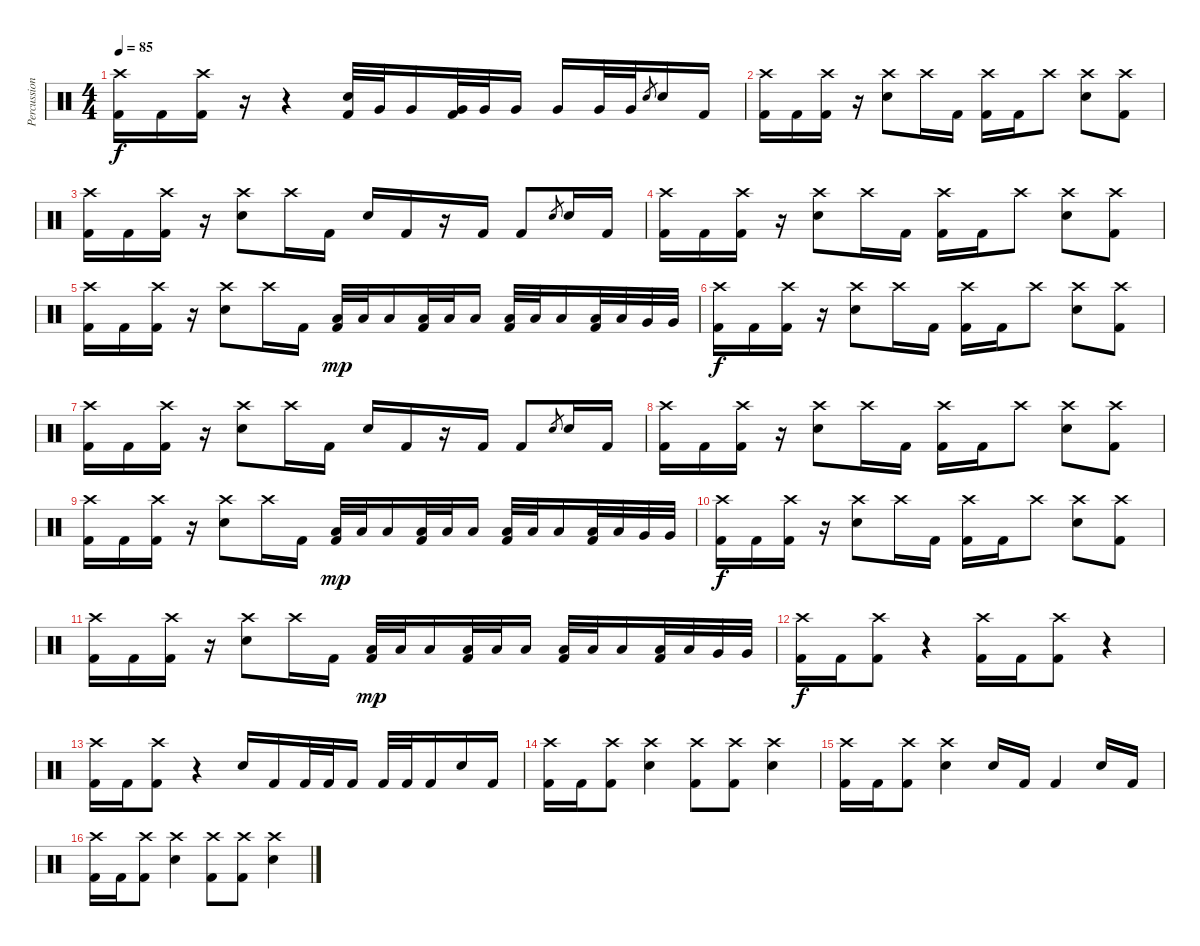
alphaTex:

\track ("Percussion" "Percussion") {instrument percussion}
\staff {score}
\articulation defaults
\ts (4 4)
\tempo 85
\clef neutral
\ks c
("Crash high (hit)" "Kick (hit) 2").16{dy f} "Kick (hit) 2".16 ("Crash high (hit)" "Kick (hit) 2").16 r.16 r.4 ("Electric Snare (hit)" "Kick (hit) 2").32 "Very Low Tom (hit)".32 "Very Low Tom (hit)".16 ("Very Low Tom (hit)" "Kick (hit) 2").32 "Very Low Tom (hit)".32 "Very Low Tom (hit)".16 "Very Low Tom (hit)".16 "Very Low Tom (hit)".32 "Very Low Tom (hit)".32 "Electric Snare (hit)".8{gr} "Electric Snare (hit)".16 "Kick (hit) 2".16 |
("Crash high (hit)" "Kick (hit) 2").16 "Kick (hit) 2".16 ("Crash high (hit)" "Kick (hit) 2").16 r.16 ("Crash high (hit)" "Electric Snare (hit)").8 "Crash high (hit)".16 "Kick (hit) 2".16 ("Crash high (hit)" "Kick (hit) 2").16 "Kick (hit) 2".16 "Crash high (hit)".8 ("Crash high (hit)" "Electric Snare (hit)").8 ("Crash high (hit)" "Kick (hit) 2").8 |
("Crash high (hit)" "Kick (hit) 2").16 "Kick (hit) 2".16 ("Crash high (hit)" "Kick (hit) 2").16 r.16 ("Crash high (hit)" "Electric Snare (hit)").8 "Crash high (hit)".16 "Kick (hit) 2".16 "Electric Snare (hit)".16 "Kick (hit) 2".16 r.16 "Kick (hit) 2".16 "Kick (hit) 2".8 "Electric Snare (hit)".8{gr} "Electric Snare (hit)".16 "Kick (hit) 2".16 |
("Crash high (hit)" "Kick (hit) 2").16 "Kick (hit) 2".16 ("Crash high (hit)" "Kick (hit) 2").16 r.16 ("Crash high (hit)" "Electric Snare (hit)").8 "Crash high (hit)".16 "Kick (hit) 2".16 ("Crash high (hit)" "Kick (hit) 2").16 "Kick (hit) 2".16 "Crash high (hit)".8 ("Crash high (hit)" "Electric Snare (hit)").8 ("Crash high (hit)" "Kick (hit) 2").8 |
("Crash high (hit)" "Kick (hit) 2").16 "Kick (hit) 2".16 ("Crash high (hit)" "Kick (hit) 2").16 r.16 ("Crash high (hit)" "Electric Snare (hit)").8 "Crash high (hit)".16 "Kick (hit) 2".16 ("Low Tom (hit)" "Kick (hit) 2").32{dy mp} "Low Tom (hit)".32 "Low Tom (hit)".16 ("Low Tom (hit)" "Kick (hit) 2").32 "Low Tom (hit)".32 "Low Tom (hit)".16 ("Low Tom (hit)" "Kick (hit) 2").32 "Low Tom (hit)".32 "Low Tom (hit)".16 ("Low Tom (hit)" "Kick (hit) 2").32 "Low Tom (hit)".32 "Very Low Tom (hit)".32 "Very Low Tom (hit)".32 |
("Crash high (hit)" "Kick (hit) 2").16{dy f} "Kick (hit) 2".16 ("Crash high (hit)" "Kick (hit) 2").16 r.16 ("Crash high (hit)" "Electric Snare (hit)").8 "Crash high (hit)".16 "Kick (hit) 2".16 ("Crash high (hit)" "Kick (hit) 2").16 "Kick (hit) 2".16 "Crash high (hit)".8 ("Crash high (hit)" "Electric Snare (hit)").8 ("Crash high (hit)" "Kick (hit) 2").8 |
("Crash high (hit)" "Kick (hit) 2").16 "Kick (hit) 2".16 ("Crash high (hit)" "Kick (hit) 2").16 r.16 ("Crash high (hit)" "Electric Snare (hit)").8 "Crash high (hit)".16 "Kick (hit) 2".16 "Electric Snare (hit)".16 "Kick (hit) 2".16 r.16 "Kick (hit) 2".16 "Kick (hit) 2".8 "Electric Snare (hit)".8{gr} "Electric Snare (hit)".16 "Kick (hit) 2".16 |
("Crash high (hit)" "Kick (hit) 2").16 "Kick (hit) 2".16 ("Crash high (hit)" "Kick (hit) 2").16 r.16 ("Crash high (hit)" "Electric Snare (hit)").8 "Crash high (hit)".16 "Kick (hit) 2".16 ("Crash high (hit)" "Kick (hit) 2").16 "Kick (hit) 2".16 "Crash high (hit)".8 ("Crash high (hit)" "Electric Snare (hit)").8 ("Crash high (hit)" "Kick (hit) 2").8 |
("Crash high (hit)" "Kick (hit) 2").16 "Kick (hit) 2".16 ("Crash high (hit)" "Kick (hit) 2").16 r.16 ("Crash high (hit)" "Electric Snare (hit)").8 "Crash high (hit)".16 "Kick (hit) 2".16 ("Low Tom (hit)" "Kick (hit) 2").32{dy mp} "Low Tom (hit)".32 "Low Tom (hit)".16 ("Low Tom (hit)" "Kick (hit) 2").32 "Low Tom (hit)".32 "Low Tom (hit)".16 ("Low Tom (hit)" "Kick (hit) 2").32 "Low Tom (hit)".32 "Low Tom (hit)".16 ("Low Tom (hit)" "Kick (hit) 2").32 "Low Tom (hit)".32 "Very Low Tom (hit)".32 "Very Low Tom (hit)".32 |
("Crash high (hit)" "Kick (hit) 2").16{dy f} "Kick (hit) 2".16 ("Crash high (hit)" "Kick (hit) 2").16 r.16 ("Crash high (hit)" "Electric Snare (hit)").8 "Crash high (hit)".16 "Kick (hit) 2".16 ("Crash high (hit)" "Kick (hit) 2").16 "Kick (hit) 2".16 "Crash high (hit)".8 ("Crash high (hit)" "Electric Snare (hit)").8 ("Crash high (hit)" "Kick (hit) 2").8 |
("Crash high (hit)" "Kick (hit) 2").16 "Kick (hit) 2".16 ("Crash high (hit)" "Kick (hit) 2").16 r.16 ("Crash high (hit)" "Electric Snare (hit)").8 "Crash high (hit)".16 "Kick (hit) 2".16 ("Low Tom (hit)" "Kick (hit) 2").32{dy mp} "Low Tom (hit)".32 "Low Tom (hit)".16 ("Low Tom (hit)" "Kick (hit) 2").32 "Low Tom (hit)".32 "Low Tom (hit)".16 ("Low Tom (hit)" "Kick (hit) 2").32 "Low Tom (hit)".32 "Low Tom (hit)".16 ("Low Tom (hit)" "Kick (hit) 2").32 "Low Tom (hit)".32 "Very Low Tom (hit)".32 "Very Low Tom (hit)".32 |
("Crash high (hit)" "Kick (hit) 2").16{dy f} "Kick (hit) 2".16 ("Crash high (hit)" "Kick (hit) 2").8 r.4 ("Crash high (hit)" "Kick (hit) 2").16 "Kick (hit) 2".16 ("Crash high (hit)" "Kick (hit) 2").8 r.4 |
("Crash high (hit)" "Kick (hit) 2").16 "Kick (hit) 2".16 ("Crash high (hit)" "Kick (hit) 2").8 r.4 "Electric Snare (hit)".16 "Kick (hit) 2".16 "Kick (hit) 2".32 "Kick (hit) 2".32 "Kick (hit) 2".16 "Kick (hit) 2".32 "Kick (hit) 2".32 "Kick (hit) 2".16 "Electric Snare (hit)".16 "Kick (hit) 2".16 |
("Crash high (hit)" "Kick (hit) 2").16 "Kick (hit) 2".16 ("Crash high (hit)" "Kick (hit) 2").8 ("Crash high (hit)" "Electric Snare (hit)").4 ("Crash high (hit)" "Kick (hit) 2").8 ("Crash high (hit)" "Kick (hit) 2").8 ("Crash high (hit)" "Electric Snare (hit)").4 |
("Crash high (hit)" "Kick (hit) 2").16 "Kick (hit) 2".16 ("Crash high (hit)" "Kick (hit) 2").8 ("Crash high (hit)" "Electric Snare (hit)").4 "Electric Snare (hit)".16 "Kick (hit) 2".16 "Kick (hit) 2".4 "Electric Snare (hit)".16 "Kick (hit) 2".16 |
("Crash high (hit)" "Kick (hit) 2").16 "Kick (hit) 2".16 ("Crash high (hit)" "Kick (hit) 2").8 ("Crash high (hit)" "Electric Snare (hit)").4 ("Crash high (hit)" "Kick (hit) 2").8 ("Crash high (hit)" "Kick (hit) 2").8 ("Crash high (hit)" "Electric Snare (hit)").4
